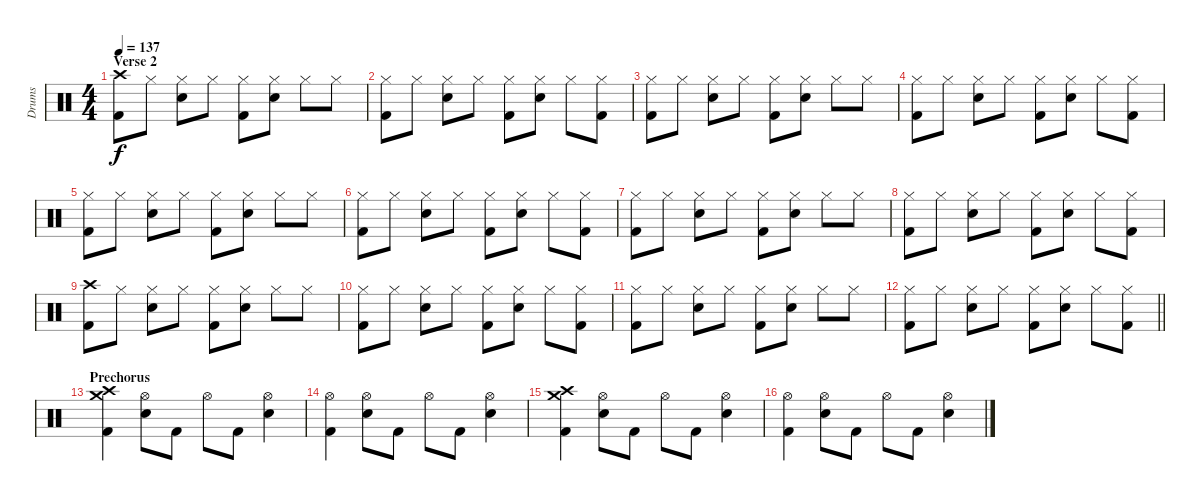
\track ("Drums" "Drums") {instrument percussion}
\staff {score}
\articulation defaults
\ts (4 4)
\section ("" "Verse 2")
\tempo 137
\clef neutral
\ks c
("Crash high (hit)" "Kick (hit) 2").8{dy f} "Hi-Hat (closed)".8 ("Hi-Hat (closed)" "Electric Snare (hit)").8 "Hi-Hat (closed)".8 ("Hi-Hat (closed)" "Kick (hit) 2").8 ("Hi-Hat (closed)" "Electric Snare (hit)").8 "Hi-Hat (closed)".8 "Hi-Hat (closed)".8 |
("Hi-Hat (closed)" "Kick (hit) 2").8 "Hi-Hat (closed)".8 ("Hi-Hat (closed)" "Electric Snare (hit)").8 "Hi-Hat (closed)".8 ("Hi-Hat (closed)" "Kick (hit) 2").8 ("Hi-Hat (closed)" "Electric Snare (hit)").8 "Hi-Hat (closed)".8 ("Hi-Hat (closed)" "Kick (hit) 2").8 |
("Hi-Hat (closed)" "Kick (hit) 2").8 "Hi-Hat (closed)".8 ("Hi-Hat (closed)" "Electric Snare (hit)").8 "Hi-Hat (closed)".8 ("Hi-Hat (closed)" "Kick (hit) 2").8 ("Hi-Hat (closed)" "Electric Snare (hit)").8 "Hi-Hat (closed)".8 "Hi-Hat (closed)".8 |
("Hi-Hat (closed)" "Kick (hit) 2").8 "Hi-Hat (closed)".8 ("Hi-Hat (closed)" "Electric Snare (hit)").8 "Hi-Hat (closed)".8 ("Hi-Hat (closed)" "Kick (hit) 2").8 ("Hi-Hat (closed)" "Electric Snare (hit)").8 "Hi-Hat (closed)".8 ("Hi-Hat (closed)" "Kick (hit) 2").8 |
("Hi-Hat (closed)" "Kick (hit) 2").8 "Hi-Hat (closed)".8 ("Hi-Hat (closed)" "Electric Snare (hit)").8 "Hi-Hat (closed)".8 ("Hi-Hat (closed)" "Kick (hit) 2").8 ("Hi-Hat (closed)" "Electric Snare (hit)").8 "Hi-Hat (closed)".8 "Hi-Hat (closed)".8 |
("Hi-Hat (closed)" "Kick (hit) 2").8 "Hi-Hat (closed)".8 ("Hi-Hat (closed)" "Electric Snare (hit)").8 "Hi-Hat (closed)".8 ("Hi-Hat (closed)" "Kick (hit) 2").8 ("Hi-Hat (closed)" "Electric Snare (hit)").8 "Hi-Hat (closed)".8 ("Hi-Hat (closed)" "Kick (hit) 2").8 |
("Hi-Hat (closed)" "Kick (hit) 2").8 "Hi-Hat (closed)".8 ("Hi-Hat (closed)" "Electric Snare (hit)").8 "Hi-Hat (closed)".8 ("Hi-Hat (closed)" "Kick (hit) 2").8 ("Hi-Hat (closed)" "Electric Snare (hit)").8 "Hi-Hat (closed)".8 "Hi-Hat (closed)".8 |
("Hi-Hat (closed)" "Kick (hit) 2").8 "Hi-Hat (closed)".8 ("Hi-Hat (closed)" "Electric Snare (hit)").8 "Hi-Hat (closed)".8 ("Hi-Hat (closed)" "Kick (hit) 2").8 ("Hi-Hat (closed)" "Electric Snare (hit)").8 "Hi-Hat (closed)".8 ("Hi-Hat (closed)" "Kick (hit) 2").8 |
("Crash high (hit)" "Kick (hit) 2").8 "Hi-Hat (closed)".8 ("Hi-Hat (closed)" "Electric Snare (hit)").8 "Hi-Hat (closed)".8 ("Hi-Hat (closed)" "Kick (hit) 2").8 ("Hi-Hat (closed)" "Electric Snare (hit)").8 "Hi-Hat (closed)".8 "Hi-Hat (closed)".8 |
("Hi-Hat (closed)" "Kick (hit) 2").8 "Hi-Hat (closed)".8 ("Hi-Hat (closed)" "Electric Snare (hit)").8 "Hi-Hat (closed)".8 ("Hi-Hat (closed)" "Kick (hit) 2").8 ("Hi-Hat (closed)" "Electric Snare (hit)").8 "Hi-Hat (closed)".8 ("Hi-Hat (closed)" "Kick (hit) 2").8 |
("Hi-Hat (closed)" "Kick (hit) 2").8 "Hi-Hat (closed)".8 ("Hi-Hat (closed)" "Electric Snare (hit)").8 "Hi-Hat (closed)".8 ("Hi-Hat (closed)" "Kick (hit) 2").8 ("Hi-Hat (closed)" "Electric Snare (hit)").8 "Hi-Hat (closed)".8 "Hi-Hat (closed)".8 |
\barLineRight lightlight
("Hi-Hat (closed)" "Kick (hit) 2").8 "Hi-Hat (closed)".8 ("Hi-Hat (closed)" "Electric Snare (hit)").8 "Hi-Hat (closed)".8 ("Hi-Hat (closed)" "Kick (hit) 2").8 ("Hi-Hat (closed)" "Electric Snare (hit)").8 "Hi-Hat (closed)".8 ("Hi-Hat (closed)" "Kick (hit) 2").8 |
\section ("" "Prechorus")
("Crash medium (hit)" "Crash high (hit)" "Kick (hit) 2").4 ("Hi-Hat (open)" "Electric Snare (hit)").8 "Kick (hit) 2".8 "Hi-Hat (open)".8 "Kick (hit) 2".8 ("Hi-Hat (open)" "Electric Snare (hit)").4 |
("Hi-Hat (open)" "Kick (hit) 2").4 ("Hi-Hat (open)" "Electric Snare (hit)").8 "Kick (hit) 2".8 "Hi-Hat (open)".8 "Kick (hit) 2".8 ("Hi-Hat (open)" "Electric Snare (hit)").4 |
("Crash medium (hit)" "Crash high (hit)" "Kick (hit) 2").4 ("Hi-Hat (open)" "Electric Snare (hit)").8 "Kick (hit) 2".8 "Hi-Hat (open)".8 "Kick (hit) 2".8 ("Hi-Hat (open)" "Electric Snare (hit)").4 |
("Hi-Hat (open)" "Kick (hit) 2").4 ("Hi-Hat (open)" "Electric Snare (hit)").8 "Kick (hit) 2".8 "Hi-Hat (open)".8 "Kick (hit) 2".8 ("Hi-Hat (open)" "Electric Snare (hit)").4
